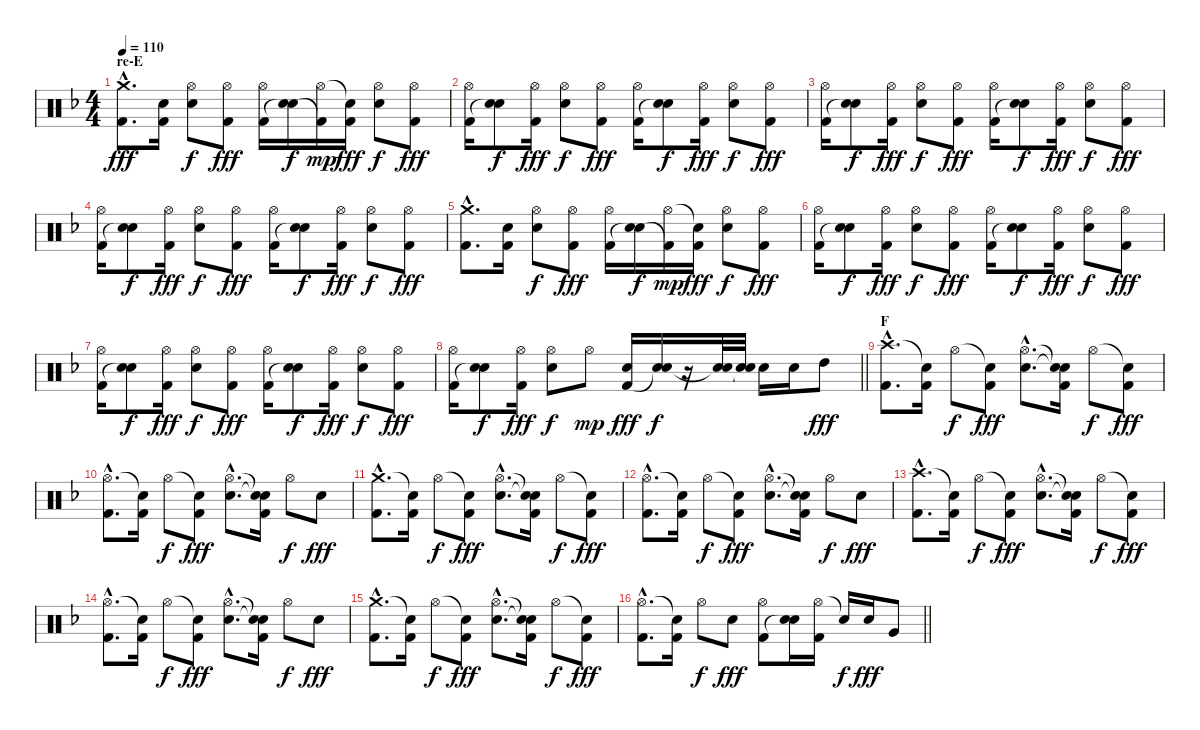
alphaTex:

\track "" {instrument percussion}
\staff {score}
\articulation defaults
\ts (4 4)
\section ("" "re-E")
\tempo 110
\clef neutral
\ks dminor
("Crash medium (hit)"{hac} "Kick (hit) 2"{hac}).8{d dy fff} ("Electric Snare (hit)" "Kick (hit) 2").16 ("Hi-Hat (open)" "Electric Snare (hit)").8{dy f} ("Hi-Hat (open)" "Kick (hit) 2").8{dy fff} ("Hi-Hat (open)" "Kick (hit) 2").16 ("Electric Snare (hit)" "Snare (hit)"{t}).16{dy f} ("Hi-Hat (open)" "Kick (hit) 2"{t}).16{dy mp} ("Snare (hit)"{t} "Kick (hit) 2").16{dy fff} ("Hi-Hat (open)" "Electric Snare (hit)").8{dy f} ("Hi-Hat (open)" "Kick (hit) 2").8{dy fff} |
("Hi-Hat (open)" "Kick (hit) 2").16 ("Electric Snare (hit)" "Snare (hit)"{t}).8{dy f} ("Hi-Hat (open)" "Kick (hit) 2").16{dy fff} ("Hi-Hat (open)" "Electric Snare (hit)").8{dy f} ("Hi-Hat (open)" "Kick (hit) 2").8{dy fff} ("Hi-Hat (open)" "Kick (hit) 2").16 ("Electric Snare (hit)" "Snare (hit)"{t}).8{dy f} ("Hi-Hat (open)" "Kick (hit) 2").16{dy fff} ("Hi-Hat (open)" "Electric Snare (hit)").8{dy f} ("Hi-Hat (open)" "Kick (hit) 2").8{dy fff} |
("Hi-Hat (open)" "Kick (hit) 2").16 ("Electric Snare (hit)" "Snare (hit)"{t}).8{dy f} ("Hi-Hat (open)" "Kick (hit) 2").16{dy fff} ("Hi-Hat (open)" "Electric Snare (hit)").8{dy f} ("Hi-Hat (open)" "Kick (hit) 2").8{dy fff} ("Hi-Hat (open)" "Kick (hit) 2").16 ("Electric Snare (hit)" "Snare (hit)"{t}).8{dy f} ("Hi-Hat (open)" "Kick (hit) 2").16{dy fff} ("Hi-Hat (open)" "Electric Snare (hit)").8{dy f} ("Hi-Hat (open)" "Kick (hit) 2").8{dy fff} |
("Hi-Hat (open)" "Kick (hit) 2").16 ("Electric Snare (hit)" "Snare (hit)"{t}).8{dy f} ("Hi-Hat (open)" "Kick (hit) 2").16{dy fff} ("Hi-Hat (open)" "Electric Snare (hit)").8{dy f} ("Hi-Hat (open)" "Kick (hit) 2").8{dy fff} ("Hi-Hat (open)" "Kick (hit) 2").16 ("Electric Snare (hit)" "Snare (hit)"{t}).8{dy f} ("Hi-Hat (open)" "Kick (hit) 2").16{dy fff} ("Hi-Hat (open)" "Electric Snare (hit)").8{dy f} ("Hi-Hat (open)" "Kick (hit) 2").8{dy fff} |
("Crash medium (hit)"{hac} "Kick (hit) 2"{hac}).8{d} ("Electric Snare (hit)" "Kick (hit) 2").16 ("Hi-Hat (open)" "Electric Snare (hit)").8{dy f} ("Hi-Hat (open)" "Kick (hit) 2").8{dy fff} ("Hi-Hat (open)" "Kick (hit) 2").16 ("Electric Snare (hit)" "Snare (hit)"{t}).16{dy f} ("Hi-Hat (open)" "Kick (hit) 2"{t}).16{dy mp} ("Snare (hit)"{t} "Kick (hit) 2").16{dy fff} ("Hi-Hat (open)" "Electric Snare (hit)").8{dy f} ("Hi-Hat (open)" "Kick (hit) 2").8{dy fff} |
("Hi-Hat (open)" "Kick (hit) 2").16 ("Electric Snare (hit)" "Snare (hit)"{t}).8{dy f} ("Hi-Hat (open)" "Kick (hit) 2").16{dy fff} ("Hi-Hat (open)" "Electric Snare (hit)").8{dy f} ("Hi-Hat (open)" "Kick (hit) 2").8{dy fff} ("Hi-Hat (open)" "Kick (hit) 2").16 ("Electric Snare (hit)" "Snare (hit)"{t}).8{dy f} ("Hi-Hat (open)" "Kick (hit) 2").16{dy fff} ("Hi-Hat (open)" "Electric Snare (hit)").8{dy f} ("Hi-Hat (open)" "Kick (hit) 2").8{dy fff} |
("Hi-Hat (open)" "Kick (hit) 2").16 ("Electric Snare (hit)" "Snare (hit)"{t}).8{dy f} ("Hi-Hat (open)" "Kick (hit) 2").16{dy fff} ("Hi-Hat (open)" "Electric Snare (hit)").8{dy f} ("Hi-Hat (open)" "Kick (hit) 2").8{dy fff} ("Hi-Hat (open)" "Kick (hit) 2").16 ("Electric Snare (hit)" "Snare (hit)"{t}).8{dy f} ("Hi-Hat (open)" "Kick (hit) 2").16{dy fff} ("Hi-Hat (open)" "Electric Snare (hit)").8{dy f} ("Hi-Hat (open)" "Kick (hit) 2").8{dy fff} |
\barLineRight lightlight
("Hi-Hat (open)" "Kick (hit) 2").16 ("Electric Snare (hit)" "Snare (hit)"{t}).8{dy f} ("Hi-Hat (open)" "Kick (hit) 2").16{dy fff} ("Hi-Hat (open)" "Electric Snare (hit)").8{dy f} "Hi-Hat (open)".8{dy mp} ("Electric Snare (hit)" "Kick (hit) 2").16{dy fff} ("Electric Snare (hit)" "Snare (hit)"{t}).16{dy f} r.16 ("Electric Snare (hit)" "Snare (hit)"{t}).32 ("Electric Snare (hit)" "Snare (hit)"{t}).32 "Electric Snare (hit)".16 "Electric Snare (hit)".16 "High Tom (hit)".8{dy fff} |
\section ("" "F")
("Crash high (hit)"{hac} "Kick (hit) 2"{hac}).8{d} ("Snare (hit)"{t} "Kick (hit) 2").16 "Hi-Hat (open)".8{dy f} ("Snare (hit)"{t} "Kick (hit) 2").8{dy fff} ("Hi-Hat (open)"{hac} "Electric Snare (hit)"{hac}).8{d} ("Snare (hit)"{t} "Snare (hit)"{t} "Kick (hit) 2").16 "Hi-Hat (open)".8{dy f} ("Snare (hit)"{t} "Kick (hit) 2").8{dy fff} |
("Hi-Hat (open)"{hac} "Kick (hit) 2"{hac}).8{d} ("Snare (hit)"{t} "Kick (hit) 2").16 "Hi-Hat (open)".8{dy f} ("Snare (hit)"{t} "Kick (hit) 2").8{dy fff} ("Hi-Hat (open)"{hac} "Electric Snare (hit)"{hac}).8{d} ("Snare (hit)"{t} "Snare (hit)"{t} "Kick (hit) 2").16 "Hi-Hat (open)".8{dy f} "Electric Snare (hit)".8{dy fff} |
("Crash medium (hit)"{hac} "Kick (hit) 2"{hac}).8{d} ("Snare (hit)"{t} "Kick (hit) 2").16 "Hi-Hat (open)".8{dy f} ("Snare (hit)"{t} "Kick (hit) 2").8{dy fff} ("Hi-Hat (open)"{hac} "Electric Snare (hit)"{hac}).8{d} ("Snare (hit)"{t} "Snare (hit)"{t} "Kick (hit) 2").16 "Hi-Hat (open)".8{dy f} ("Snare (hit)"{t} "Kick (hit) 2").8{dy fff} |
("Hi-Hat (open)"{hac} "Kick (hit) 2"{hac}).8{d} ("Snare (hit)"{t} "Kick (hit) 2").16 "Hi-Hat (open)".8{dy f} ("Snare (hit)"{t} "Kick (hit) 2").8{dy fff} ("Hi-Hat (open)"{hac} "Electric Snare (hit)"{hac}).8{d} ("Snare (hit)"{t} "Snare (hit)"{t} "Kick (hit) 2").16 "Hi-Hat (open)".8{dy f} "Electric Snare (hit)".8{dy fff} |
("Crash high (hit)"{hac} "Kick (hit) 2"{hac}).8{d} ("Snare (hit)"{t} "Kick (hit) 2").16 "Hi-Hat (open)".8{dy f} ("Snare (hit)"{t} "Kick (hit) 2").8{dy fff} ("Hi-Hat (open)"{hac} "Electric Snare (hit)"{hac}).8{d} ("Snare (hit)"{t} "Snare (hit)"{t} "Kick (hit) 2").16 "Hi-Hat (open)".8{dy f} ("Snare (hit)"{t} "Kick (hit) 2").8{dy fff} |
("Hi-Hat (open)"{hac} "Kick (hit) 2"{hac}).8{d} ("Snare (hit)"{t} "Kick (hit) 2").16 "Hi-Hat (open)".8{dy f} ("Snare (hit)"{t} "Kick (hit) 2").8{dy fff} ("Hi-Hat (open)"{hac} "Electric Snare (hit)"{hac}).8{d} ("Snare (hit)"{t} "Snare (hit)"{t} "Kick (hit) 2").16 "Hi-Hat (open)".8{dy f} "Electric Snare (hit)".8{dy fff} |
("Crash medium (hit)"{hac} "Kick (hit) 2"{hac}).8{d} ("Snare (hit)"{t} "Kick (hit) 2").16 "Hi-Hat (open)".8{dy f} ("Snare (hit)"{t} "Kick (hit) 2").8{dy fff} ("Hi-Hat (open)"{hac} "Electric Snare (hit)"{hac}).8{d} ("Snare (hit)"{t} "Snare (hit)"{t} "Kick (hit) 2").16 "Hi-Hat (open)".8{dy f} ("Snare (hit)"{t} "Kick (hit) 2").8{dy fff} |
\barLineRight lightlight
("Hi-Hat (open)"{hac} "Kick (hit) 2"{hac}).8{d} ("Snare (hit)"{t} "Kick (hit) 2").16 "Hi-Hat (open)".8{dy f} "Electric Snare (hit)".8{dy fff} ("Hi-Hat (open)" "Kick (hit) 2").8 ("Electric Snare (hit)" "Snare (hit)"{t}).16 ("Hi-Hat (open)" "Kick (hit) 2").16 "Snare (hit)"{t}.16{dy f} "Electric Snare (hit)".16{dy fff} "Very Low Tom (hit)".8
